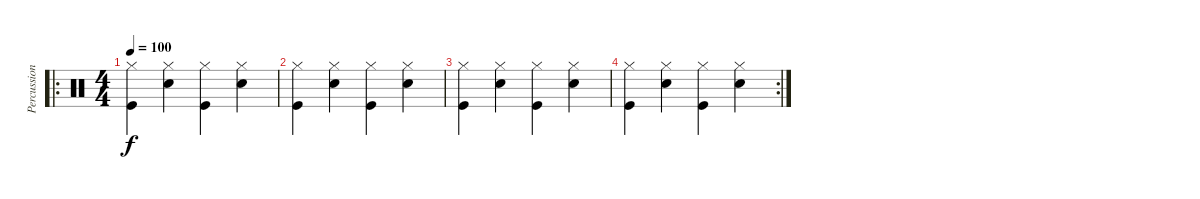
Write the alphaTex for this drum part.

\track ("Percussion" "Percussion") {instrument percussion}
\staff {score}
\articulation defaults
\ro
\ts (4 4)
\tempo 100
\clef neutral
\ks c
("Hi-Hat (closed)" "Kick (hit)").4{dy f} ("Hi-Hat (closed)" "Snare (hit) 2").4 ("Hi-Hat (closed)" "Kick (hit)").4 ("Hi-Hat (closed)" "Snare (hit) 2").4 |
("Hi-Hat (closed)" "Kick (hit)").4 ("Hi-Hat (closed)" "Snare (hit) 2").4 ("Hi-Hat (closed)" "Kick (hit)").4 ("Hi-Hat (closed)" "Snare (hit) 2").4 |
("Hi-Hat (closed)" "Kick (hit)").4 ("Hi-Hat (closed)" "Snare (hit) 2").4 ("Hi-Hat (closed)" "Kick (hit)").4 ("Hi-Hat (closed)" "Snare (hit) 2").4 |
\rc 2
("Hi-Hat (closed)" "Kick (hit)").4 ("Hi-Hat (closed)" "Snare (hit) 2").4 ("Hi-Hat (closed)" "Kick (hit)").4 ("Hi-Hat (closed)" "Snare (hit) 2").4
